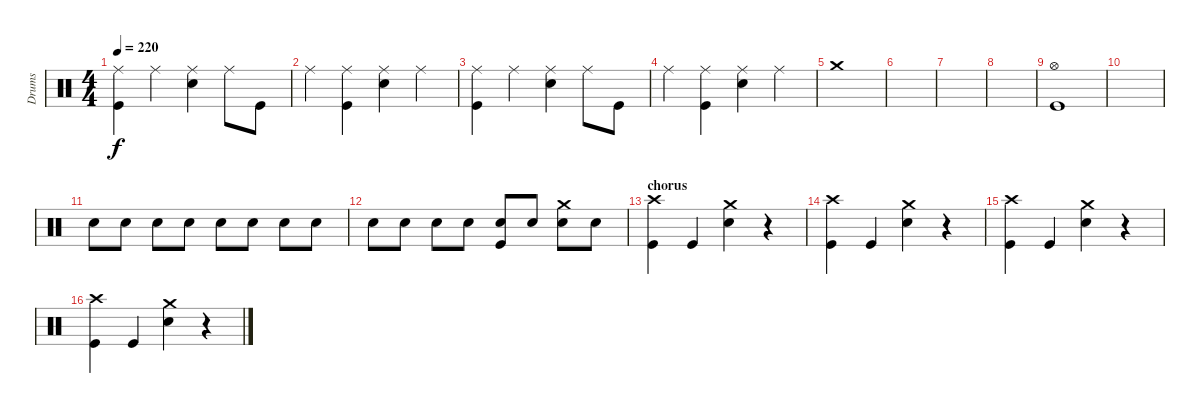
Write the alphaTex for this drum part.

\track ("Drums" "Drums") {instrument percussion}
\staff {score}
\articulation defaults
\ts (4 4)
\tempo 220
\clef neutral
\ks c
("Ride (middle)" "Kick (hit)").4{dy f} "Ride (middle)".4 ("Ride (middle)" "Electric Snare (hit)").4 "Ride (middle)".8 "Kick (hit)".8 |
"Ride (middle)".4 ("Ride (middle)" "Kick (hit)").4 ("Ride (middle)" "Electric Snare (hit)").4 "Ride (middle)".4 |
("Ride (middle)" "Kick (hit)").4 "Ride (middle)".4 ("Ride (middle)" "Electric Snare (hit)").4 "Ride (middle)".8 "Kick (hit)".8 |
"Ride (middle)".4 ("Ride (middle)" "Kick (hit)").4 ("Ride (middle)" "Electric Snare (hit)").4 "Ride (middle)".4 |
"Crash medium (hit)".1 |
|
|
|
("Hi-Hat (open)" "Kick (hit)").1 |
|
"Electric Snare (hit)".8 "Electric Snare (hit)".8 "Electric Snare (hit)".8 "Electric Snare (hit)".8 "Electric Snare (hit)".8 "Electric Snare (hit)".8 "Electric Snare (hit)".8 "Electric Snare (hit)".8 |
"Electric Snare (hit)".8 "Electric Snare (hit)".8 "Electric Snare (hit)".8 "Electric Snare (hit)".8 ("Electric Snare (hit)" "Kick (hit)").8 "Electric Snare (hit)".8 ("Crash medium (hit)" "Electric Snare (hit)").8 "Electric Snare (hit)".8 |
\section ("" "chorus")
("Crash high (hit)" "Kick (hit)").4 "Kick (hit)".4 ("Crash medium (hit)" "Electric Snare (hit)").4 r.4 |
("Crash high (hit)" "Kick (hit)").4 "Kick (hit)".4 ("Crash medium (hit)" "Electric Snare (hit)").4 r.4 |
("Crash high (hit)" "Kick (hit)").4 "Kick (hit)".4 ("Crash medium (hit)" "Electric Snare (hit)").4 r.4 |
("Crash high (hit)" "Kick (hit)").4 "Kick (hit)".4 ("Crash medium (hit)" "Electric Snare (hit)").4 r.4
